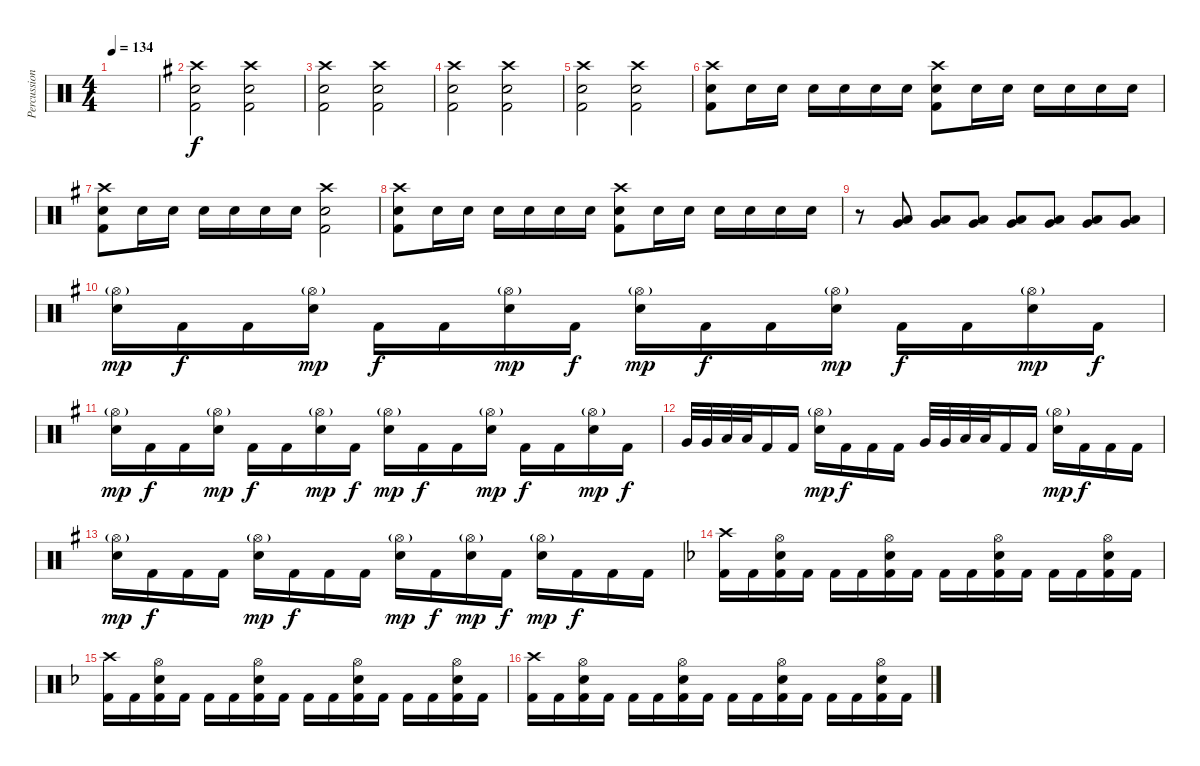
\track ("Percussion" "Percussion") {instrument percussion}
\staff {score}
\articulation defaults
\ts (4 4)
\tempo 134
\clef neutral
\ks c
|
\ks eminor
("Crash high (hit)" "Electric Snare (hit)" "Kick (hit) 2").2 ("Crash high (hit)" "Electric Snare (hit)" "Kick (hit) 2").2 |
("Crash high (hit)" "Electric Snare (hit)" "Kick (hit) 2").2 ("Crash high (hit)" "Electric Snare (hit)" "Kick (hit) 2").2 |
("Crash high (hit)" "Electric Snare (hit)" "Kick (hit) 2").2 ("Crash high (hit)" "Electric Snare (hit)" "Kick (hit) 2").2 |
("Crash high (hit)" "Electric Snare (hit)" "Kick (hit) 2").2 ("Crash high (hit)" "Electric Snare (hit)" "Kick (hit) 2").2 |
("Crash high (hit)" "Electric Snare (hit)" "Kick (hit) 2").8 "Electric Snare (hit)".16 "Electric Snare (hit)".16 "Electric Snare (hit)".16 "Electric Snare (hit)".16 "Electric Snare (hit)".16 "Electric Snare (hit)".16 ("Crash high (hit)" "Electric Snare (hit)" "Kick (hit) 2").8 "Electric Snare (hit)".16 "Electric Snare (hit)".16 "Electric Snare (hit)".16 "Electric Snare (hit)".16 "Electric Snare (hit)".16 "Electric Snare (hit)".16 |
("Crash high (hit)" "Electric Snare (hit)" "Kick (hit) 2").8 "Electric Snare (hit)".16 "Electric Snare (hit)".16 "Electric Snare (hit)".16 "Electric Snare (hit)".16 "Electric Snare (hit)".16 "Electric Snare (hit)".16 ("Crash high (hit)" "Electric Snare (hit)" "Kick (hit) 2").2 |
("Crash high (hit)" "Electric Snare (hit)" "Kick (hit) 2").8 "Electric Snare (hit)".16 "Electric Snare (hit)".16 "Electric Snare (hit)".16 "Electric Snare (hit)".16 "Electric Snare (hit)".16 "Electric Snare (hit)".16 ("Crash high (hit)" "Electric Snare (hit)" "Kick (hit) 2").8 "Electric Snare (hit)".16 "Electric Snare (hit)".16 "Electric Snare (hit)".16 "Electric Snare (hit)".16 "Electric Snare (hit)".16 "Electric Snare (hit)".16 |
r.8 ("Very Low Tom (hit)" "Low Floor Tom (hit)").8 ("Very Low Tom (hit)" "Low Floor Tom (hit)").8 ("Very Low Tom (hit)" "Low Floor Tom (hit)").8 ("Very Low Tom (hit)" "Low Floor Tom (hit)").8 ("Very Low Tom (hit)" "Low Floor Tom (hit)").8 ("Very Low Tom (hit)" "Low Floor Tom (hit)").8 ("Very Low Tom (hit)" "Low Floor Tom (hit)").8 |
("Hi-Hat (open)"{g} "Electric Snare (hit)").16{dy mp} "Kick (hit) 2".16{dy f} "Kick (hit) 2".16 ("Hi-Hat (open)"{g} "Electric Snare (hit)").16{dy mp} "Kick (hit) 2".16{dy f} "Kick (hit) 2".16 ("Hi-Hat (open)"{g} "Electric Snare (hit)").16{dy mp} "Kick (hit) 2".16{dy f} ("Hi-Hat (open)"{g} "Electric Snare (hit)").16{dy mp} "Kick (hit) 2".16{dy f} "Kick (hit) 2".16 ("Hi-Hat (open)"{g} "Electric Snare (hit)").16{dy mp} "Kick (hit) 2".16{dy f} "Kick (hit) 2".16 ("Hi-Hat (open)"{g} "Electric Snare (hit)").16{dy mp} "Kick (hit) 2".16{dy f} |
("Hi-Hat (open)"{g} "Electric Snare (hit)").16{dy mp} "Kick (hit) 2".16{dy f} "Kick (hit) 2".16 ("Hi-Hat (open)"{g} "Electric Snare (hit)").16{dy mp} "Kick (hit) 2".16{dy f} "Kick (hit) 2".16 ("Hi-Hat (open)"{g} "Electric Snare (hit)").16{dy mp} "Kick (hit) 2".16{dy f} ("Hi-Hat (open)"{g} "Electric Snare (hit)").16{dy mp} "Kick (hit) 2".16{dy f} "Kick (hit) 2".16 ("Hi-Hat (open)"{g} "Electric Snare (hit)").16{dy mp} "Kick (hit) 2".16{dy f} "Kick (hit) 2".16 ("Hi-Hat (open)"{g} "Electric Snare (hit)").16{dy mp} "Kick (hit) 2".16{dy f} |
"Very Low Tom (hit)".32 "Very Low Tom (hit)".32 "Low Floor Tom (hit)".32 "Low Floor Tom (hit)".32 "Kick (hit) 2".16 "Kick (hit) 2".16 ("Hi-Hat (open)"{g} "Electric Snare (hit)").16{dy mp} "Kick (hit) 2".16{dy f} "Kick (hit) 2".16 "Kick (hit) 2".16 "Very Low Tom (hit)".32 "Very Low Tom (hit)".32 "Low Floor Tom (hit)".32 "Low Floor Tom (hit)".32 "Kick (hit) 2".16 "Kick (hit) 2".16 ("Hi-Hat (open)"{g} "Electric Snare (hit)").16{dy mp} "Kick (hit) 2".16{dy f} "Kick (hit) 2".16 "Kick (hit) 2".16 |
("Hi-Hat (open)"{g} "Electric Snare (hit)").16{dy mp} "Kick (hit) 2".16{dy f} "Kick (hit) 2".16 "Kick (hit) 2".16 ("Hi-Hat (open)"{g} "Electric Snare (hit)").16{dy mp} "Kick (hit) 2".16{dy f} "Kick (hit) 2".16 "Kick (hit) 2".16 ("Hi-Hat (open)"{g} "Electric Snare (hit)").16{dy mp} "Kick (hit) 2".16{dy f} ("Hi-Hat (open)"{g} "Electric Snare (hit)").16{dy mp} "Kick (hit) 2".16{dy f} ("Hi-Hat (open)"{g} "Electric Snare (hit)").16{dy mp} "Kick (hit) 2".16{dy f} "Kick (hit) 2".16 "Kick (hit) 2".16 |
\ks dminor
("Crash high (hit)" "Kick (hit) 2").16 "Kick (hit) 2".16 ("Hi-Hat (open)" "Electric Snare (hit)" "Kick (hit) 2").16 "Kick (hit) 2".16 "Kick (hit) 2".16 "Kick (hit) 2".16 ("Hi-Hat (open)" "Electric Snare (hit)" "Kick (hit) 2").16 "Kick (hit) 2".16 "Kick (hit) 2".16 "Kick (hit) 2".16 ("Hi-Hat (open)" "Electric Snare (hit)" "Kick (hit) 2").16 "Kick (hit) 2".16 "Kick (hit) 2".16 "Kick (hit) 2".16 ("Hi-Hat (open)" "Electric Snare (hit)" "Kick (hit) 2").16 "Kick (hit) 2".16 |
("Crash high (hit)" "Kick (hit) 2").16 "Kick (hit) 2".16 ("Hi-Hat (open)" "Electric Snare (hit)" "Kick (hit) 2").16 "Kick (hit) 2".16 "Kick (hit) 2".16 "Kick (hit) 2".16 ("Hi-Hat (open)" "Electric Snare (hit)" "Kick (hit) 2").16 "Kick (hit) 2".16 "Kick (hit) 2".16 "Kick (hit) 2".16 ("Hi-Hat (open)" "Electric Snare (hit)" "Kick (hit) 2").16 "Kick (hit) 2".16 "Kick (hit) 2".16 "Kick (hit) 2".16 ("Hi-Hat (open)" "Electric Snare (hit)" "Kick (hit) 2").16 "Kick (hit) 2".16 |
("Crash high (hit)" "Kick (hit) 2").16 "Kick (hit) 2".16 ("Hi-Hat (open)" "Electric Snare (hit)" "Kick (hit) 2").16 "Kick (hit) 2".16 "Kick (hit) 2".16 "Kick (hit) 2".16 ("Hi-Hat (open)" "Electric Snare (hit)" "Kick (hit) 2").16 "Kick (hit) 2".16 "Kick (hit) 2".16 "Kick (hit) 2".16 ("Hi-Hat (open)" "Electric Snare (hit)" "Kick (hit) 2").16 "Kick (hit) 2".16 "Kick (hit) 2".16 "Kick (hit) 2".16 ("Hi-Hat (open)" "Electric Snare (hit)" "Kick (hit) 2").16 "Kick (hit) 2".16
